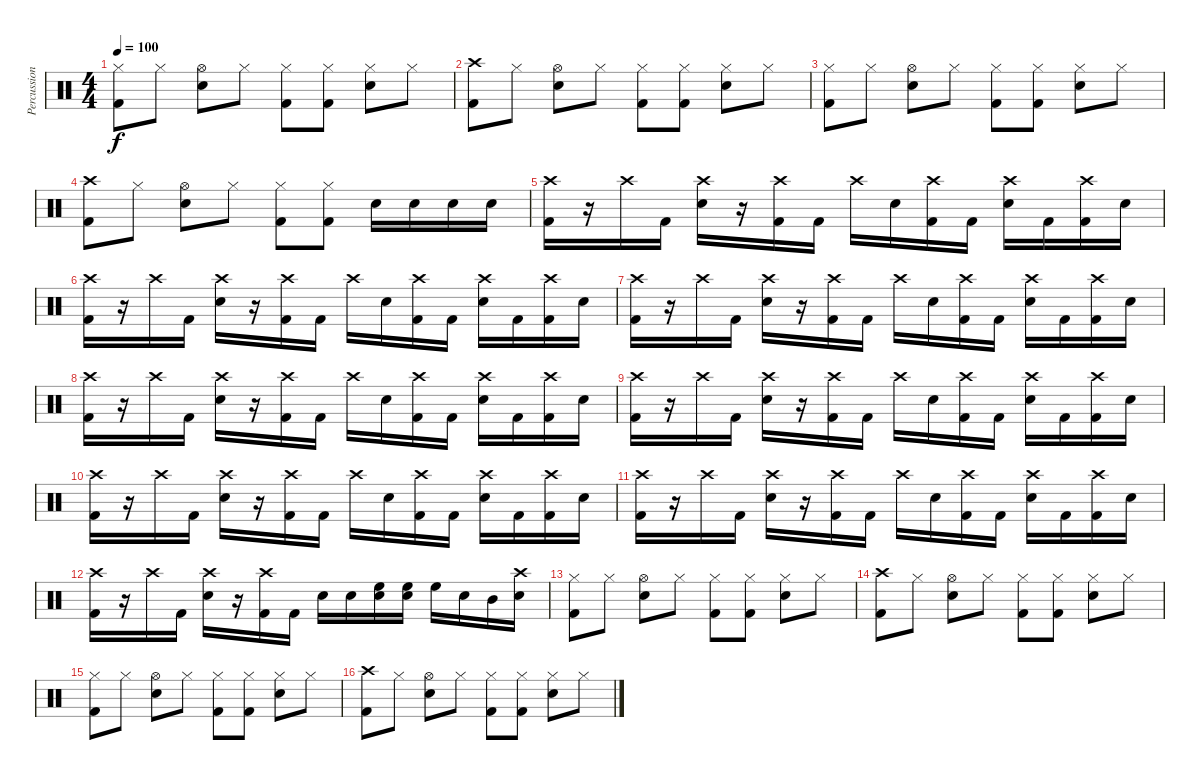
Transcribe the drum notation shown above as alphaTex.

\track ("Percussions" "Percussion") {instrument percussion}
\staff {score}
\articulation defaults
\ts (4 4)
\tempo 100
\clef neutral
\ks c
("Hi-Hat (closed)" "Kick (hit) 2").8{dy f} "Hi-Hat (closed)".8 ("Hi-Hat (open)" "Snare (hit) 2").8 "Hi-Hat (closed)".8 ("Hi-Hat (closed)" "Kick (hit) 2").8 ("Hi-Hat (closed)" "Kick (hit) 2").8 ("Hi-Hat (closed)" "Snare (hit) 2").8 "Hi-Hat (closed)".8 |
("Crash high (hit)" "Kick (hit) 2").8 "Hi-Hat (closed)".8 ("Hi-Hat (open)" "Snare (hit) 2").8 "Hi-Hat (closed)".8 ("Hi-Hat (closed)" "Kick (hit) 2").8 ("Hi-Hat (closed)" "Kick (hit) 2").8 ("Hi-Hat (closed)" "Snare (hit) 2").8 "Hi-Hat (closed)".8 |
("Hi-Hat (closed)" "Kick (hit) 2").8 "Hi-Hat (closed)".8 ("Hi-Hat (open)" "Snare (hit) 2").8 "Hi-Hat (closed)".8 ("Hi-Hat (closed)" "Kick (hit) 2").8 ("Hi-Hat (closed)" "Kick (hit) 2").8 ("Hi-Hat (closed)" "Snare (hit) 2").8 "Hi-Hat (closed)".8 |
("Crash high (hit)" "Kick (hit) 2").8 "Hi-Hat (closed)".8 ("Hi-Hat (open)" "Snare (hit) 2").8 "Hi-Hat (closed)".8 ("Hi-Hat (closed)" "Kick (hit) 2").8 ("Hi-Hat (closed)" "Kick (hit) 2").8 "Snare (hit) 2".16 "Snare (hit) 2".16 "Snare (hit) 2".16 "Snare (hit) 2".16 |
("Crash high (hit)" "Kick (hit) 2").16 r.16 "Crash high (hit)".16 "Kick (hit) 2".16 ("Crash high (hit)" "Snare (hit) 2").16 r.16 ("Crash high (hit)" "Kick (hit) 2").16 "Kick (hit) 2".16 "Crash high (hit)".16 "Snare (hit) 2".16 ("Crash high (hit)" "Kick (hit) 2").16 "Kick (hit) 2".16 ("Crash high (hit)" "Snare (hit) 2").16 "Kick (hit) 2".16 ("Crash high (hit)" "Kick (hit) 2").16 "Snare (hit) 2".16 |
("Crash high (hit)" "Kick (hit) 2").16 r.16 "Crash high (hit)".16 "Kick (hit) 2".16 ("Crash high (hit)" "Snare (hit) 2").16 r.16 ("Crash high (hit)" "Kick (hit) 2").16 "Kick (hit) 2".16 "Crash high (hit)".16 "Snare (hit) 2".16 ("Crash high (hit)" "Kick (hit) 2").16 "Kick (hit) 2".16 ("Crash high (hit)" "Snare (hit) 2").16 "Kick (hit) 2".16 ("Crash high (hit)" "Kick (hit) 2").16 "Snare (hit) 2".16 |
("Crash high (hit)" "Kick (hit) 2").16 r.16 "Crash high (hit)".16 "Kick (hit) 2".16 ("Crash high (hit)" "Snare (hit) 2").16 r.16 ("Crash high (hit)" "Kick (hit) 2").16 "Kick (hit) 2".16 "Crash high (hit)".16 "Snare (hit) 2".16 ("Crash high (hit)" "Kick (hit) 2").16 "Kick (hit) 2".16 ("Crash high (hit)" "Snare (hit) 2").16 "Kick (hit) 2".16 ("Crash high (hit)" "Kick (hit) 2").16 "Snare (hit) 2".16 |
("Crash high (hit)" "Kick (hit) 2").16 r.16 "Crash high (hit)".16 "Kick (hit) 2".16 ("Crash high (hit)" "Snare (hit) 2").16 r.16 ("Crash high (hit)" "Kick (hit) 2").16 "Kick (hit) 2".16 "Crash high (hit)".16 "Snare (hit) 2".16 ("Crash high (hit)" "Kick (hit) 2").16 "Kick (hit) 2".16 ("Crash high (hit)" "Snare (hit) 2").16 "Kick (hit) 2".16 ("Crash high (hit)" "Kick (hit) 2").16 "Snare (hit) 2".16 |
("Crash high (hit)" "Kick (hit) 2").16 r.16 "Crash high (hit)".16 "Kick (hit) 2".16 ("Crash high (hit)" "Snare (hit) 2").16 r.16 ("Crash high (hit)" "Kick (hit) 2").16 "Kick (hit) 2".16 "Crash high (hit)".16 "Snare (hit) 2".16 ("Crash high (hit)" "Kick (hit) 2").16 "Kick (hit) 2".16 ("Crash high (hit)" "Snare (hit) 2").16 "Kick (hit) 2".16 ("Crash high (hit)" "Kick (hit) 2").16 "Snare (hit) 2".16 |
("Crash high (hit)" "Kick (hit) 2").16 r.16 "Crash high (hit)".16 "Kick (hit) 2".16 ("Crash high (hit)" "Snare (hit) 2").16 r.16 ("Crash high (hit)" "Kick (hit) 2").16 "Kick (hit) 2".16 "Crash high (hit)".16 "Snare (hit) 2".16 ("Crash high (hit)" "Kick (hit) 2").16 "Kick (hit) 2".16 ("Crash high (hit)" "Snare (hit) 2").16 "Kick (hit) 2".16 ("Crash high (hit)" "Kick (hit) 2").16 "Snare (hit) 2".16 |
("Crash high (hit)" "Kick (hit) 2").16 r.16 "Crash high (hit)".16 "Kick (hit) 2".16 ("Crash high (hit)" "Snare (hit) 2").16 r.16 ("Crash high (hit)" "Kick (hit) 2").16 "Kick (hit) 2".16 "Crash high (hit)".16 "Snare (hit) 2".16 ("Crash high (hit)" "Kick (hit) 2").16 "Kick (hit) 2".16 ("Crash high (hit)" "Snare (hit) 2").16 "Kick (hit) 2".16 ("Crash high (hit)" "Kick (hit) 2").16 "Snare (hit) 2".16 |
("Crash high (hit)" "Kick (hit) 2").16 r.16 "Crash high (hit)".16 "Kick (hit) 2".16 ("Crash high (hit)" "Snare (hit) 2").16 r.16 ("Crash high (hit)" "Kick (hit) 2").16 "Kick (hit) 2".16 "Snare (hit) 2".16 "Snare (hit) 2".16 ("High Floor Tom (hit)" "Snare (hit) 2").16 ("High Floor Tom (hit)" "Snare (hit) 2").16 "High Floor Tom (hit)".16 "Snare (hit) 2".16 "Mid Tom (hit)".16 ("Crash high (hit)" "Snare (hit) 2").16 |
("Hi-Hat (closed)" "Kick (hit) 2").8 "Hi-Hat (closed)".8 ("Hi-Hat (open)" "Snare (hit) 2").8 "Hi-Hat (closed)".8 ("Hi-Hat (closed)" "Kick (hit) 2").8 ("Hi-Hat (closed)" "Kick (hit) 2").8 ("Hi-Hat (closed)" "Snare (hit) 2").8 "Hi-Hat (closed)".8 |
("Crash high (hit)" "Kick (hit) 2").8 "Hi-Hat (closed)".8 ("Hi-Hat (open)" "Snare (hit) 2").8 "Hi-Hat (closed)".8 ("Hi-Hat (closed)" "Kick (hit) 2").8 ("Hi-Hat (closed)" "Kick (hit) 2").8 ("Hi-Hat (closed)" "Snare (hit) 2").8 "Hi-Hat (closed)".8 |
("Hi-Hat (closed)" "Kick (hit) 2").8 "Hi-Hat (closed)".8 ("Hi-Hat (open)" "Snare (hit) 2").8 "Hi-Hat (closed)".8 ("Hi-Hat (closed)" "Kick (hit) 2").8 ("Hi-Hat (closed)" "Kick (hit) 2").8 ("Hi-Hat (closed)" "Snare (hit) 2").8 "Hi-Hat (closed)".8 |
("Crash high (hit)" "Kick (hit) 2").8 "Hi-Hat (closed)".8 ("Hi-Hat (open)" "Snare (hit) 2").8 "Hi-Hat (closed)".8 ("Hi-Hat (closed)" "Kick (hit) 2").8 ("Hi-Hat (closed)" "Kick (hit) 2").8 ("Hi-Hat (closed)" "Snare (hit) 2").8 "Hi-Hat (closed)".8
